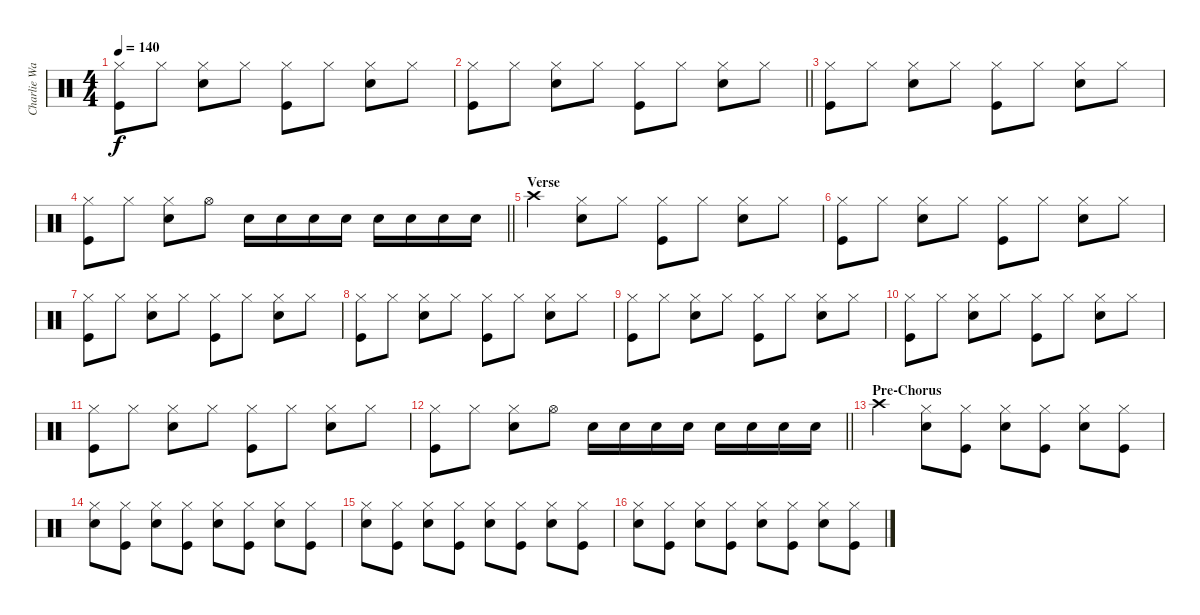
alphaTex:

\track ("Charlie Watts" "Charlie Wa") {instrument percussion}
\staff {score}
\articulation defaults
\ts (4 4)
\tempo 140
\clef neutral
\ks c
("Kick (hit)" "Hi-Hat (closed)").8{dy f} "Hi-Hat (closed)".8 ("Snare (hit) 2" "Hi-Hat (closed)").8 "Hi-Hat (closed)".8 ("Kick (hit)" "Hi-Hat (closed)").8 "Hi-Hat (closed)".8 ("Snare (hit) 2" "Hi-Hat (closed)").8 "Hi-Hat (closed)".8 |
\barLineRight lightlight
("Kick (hit)" "Hi-Hat (closed)").8 "Hi-Hat (closed)".8 ("Snare (hit) 2" "Hi-Hat (closed)").8 "Hi-Hat (closed)".8 ("Kick (hit)" "Hi-Hat (closed)").8 "Hi-Hat (closed)".8 ("Snare (hit) 2" "Hi-Hat (closed)").8 "Hi-Hat (closed)".8 |
("Kick (hit)" "Hi-Hat (closed)").8 "Hi-Hat (closed)".8 ("Snare (hit) 2" "Hi-Hat (closed)").8 "Hi-Hat (closed)".8 ("Kick (hit)" "Hi-Hat (closed)").8 "Hi-Hat (closed)".8 ("Snare (hit) 2" "Hi-Hat (closed)").8 "Hi-Hat (closed)".8 |
\barLineRight lightlight
("Kick (hit)" "Hi-Hat (closed)").8 "Hi-Hat (closed)".8 ("Snare (hit) 2" "Hi-Hat (closed)").8 "Hi-Hat (open)".8 "Snare (hit) 2".16 "Snare (hit) 2".16 "Snare (hit) 2".16 "Snare (hit) 2".16 "Snare (hit) 2".16 "Snare (hit) 2".16 "Snare (hit) 2".16 "Snare (hit) 2".16 |
\section ("" "Verse")
"Crash high (hit)".4 ("Snare (hit) 2" "Hi-Hat (closed)").8 "Hi-Hat (closed)".8 ("Kick (hit)" "Hi-Hat (closed)").8 "Hi-Hat (closed)".8 ("Snare (hit) 2" "Hi-Hat (closed)").8 "Hi-Hat (closed)".8 |
("Kick (hit)" "Hi-Hat (closed)").8 "Hi-Hat (closed)".8 ("Snare (hit) 2" "Hi-Hat (closed)").8 "Hi-Hat (closed)".8 ("Kick (hit)" "Hi-Hat (closed)").8 "Hi-Hat (closed)".8 ("Snare (hit) 2" "Hi-Hat (closed)").8 "Hi-Hat (closed)".8 |
("Kick (hit)" "Hi-Hat (closed)").8 "Hi-Hat (closed)".8 ("Snare (hit) 2" "Hi-Hat (closed)").8 "Hi-Hat (closed)".8 ("Kick (hit)" "Hi-Hat (closed)").8 "Hi-Hat (closed)".8 ("Snare (hit) 2" "Hi-Hat (closed)").8 "Hi-Hat (closed)".8 |
("Kick (hit)" "Hi-Hat (closed)").8 "Hi-Hat (closed)".8 ("Snare (hit) 2" "Hi-Hat (closed)").8 "Hi-Hat (closed)".8 ("Kick (hit)" "Hi-Hat (closed)").8 "Hi-Hat (closed)".8 ("Snare (hit) 2" "Hi-Hat (closed)").8 "Hi-Hat (closed)".8 |
("Kick (hit)" "Hi-Hat (closed)").8 "Hi-Hat (closed)".8 ("Snare (hit) 2" "Hi-Hat (closed)").8 "Hi-Hat (closed)".8 ("Kick (hit)" "Hi-Hat (closed)").8 "Hi-Hat (closed)".8 ("Snare (hit) 2" "Hi-Hat (closed)").8 "Hi-Hat (closed)".8 |
("Kick (hit)" "Hi-Hat (closed)").8 "Hi-Hat (closed)".8 ("Snare (hit) 2" "Hi-Hat (closed)").8 "Hi-Hat (closed)".8 ("Kick (hit)" "Hi-Hat (closed)").8 "Hi-Hat (closed)".8 ("Snare (hit) 2" "Hi-Hat (closed)").8 "Hi-Hat (closed)".8 |
("Kick (hit)" "Hi-Hat (closed)").8 "Hi-Hat (closed)".8 ("Snare (hit) 2" "Hi-Hat (closed)").8 "Hi-Hat (closed)".8 ("Kick (hit)" "Hi-Hat (closed)").8 "Hi-Hat (closed)".8 ("Snare (hit) 2" "Hi-Hat (closed)").8 "Hi-Hat (closed)".8 |
\barLineRight lightlight
("Kick (hit)" "Hi-Hat (closed)").8 "Hi-Hat (closed)".8 ("Snare (hit) 2" "Hi-Hat (closed)").8 "Hi-Hat (open)".8 "Snare (hit) 2".16 "Snare (hit) 2".16 "Snare (hit) 2".16 "Snare (hit) 2".16 "Snare (hit) 2".16 "Snare (hit) 2".16 "Snare (hit) 2".16 "Snare (hit) 2".16 |
\section ("" "Pre-Chorus")
"Crash high (hit)".4 ("Snare (hit) 2" "Hi-Hat (closed)").8 ("Kick (hit)" "Hi-Hat (closed)").8 ("Snare (hit) 2" "Hi-Hat (closed)").8 ("Kick (hit)" "Hi-Hat (closed)").8 ("Snare (hit) 2" "Hi-Hat (closed)").8 ("Kick (hit)" "Hi-Hat (closed)").8 |
("Snare (hit) 2" "Hi-Hat (closed)").8 ("Kick (hit)" "Hi-Hat (closed)").8 ("Snare (hit) 2" "Hi-Hat (closed)").8 ("Kick (hit)" "Hi-Hat (closed)").8 ("Snare (hit) 2" "Hi-Hat (closed)").8 ("Kick (hit)" "Hi-Hat (closed)").8 ("Snare (hit) 2" "Hi-Hat (closed)").8 ("Kick (hit)" "Hi-Hat (closed)").8 |
("Snare (hit) 2" "Hi-Hat (closed)").8 ("Kick (hit)" "Hi-Hat (closed)").8 ("Snare (hit) 2" "Hi-Hat (closed)").8 ("Kick (hit)" "Hi-Hat (closed)").8 ("Snare (hit) 2" "Hi-Hat (closed)").8 ("Kick (hit)" "Hi-Hat (closed)").8 ("Snare (hit) 2" "Hi-Hat (closed)").8 ("Kick (hit)" "Hi-Hat (closed)").8 |
("Snare (hit) 2" "Hi-Hat (closed)").8 ("Kick (hit)" "Hi-Hat (closed)").8 ("Snare (hit) 2" "Hi-Hat (closed)").8 ("Kick (hit)" "Hi-Hat (closed)").8 ("Snare (hit) 2" "Hi-Hat (closed)").8 ("Kick (hit)" "Hi-Hat (closed)").8 ("Snare (hit) 2" "Hi-Hat (closed)").8 ("Kick (hit)" "Hi-Hat (closed)").8
